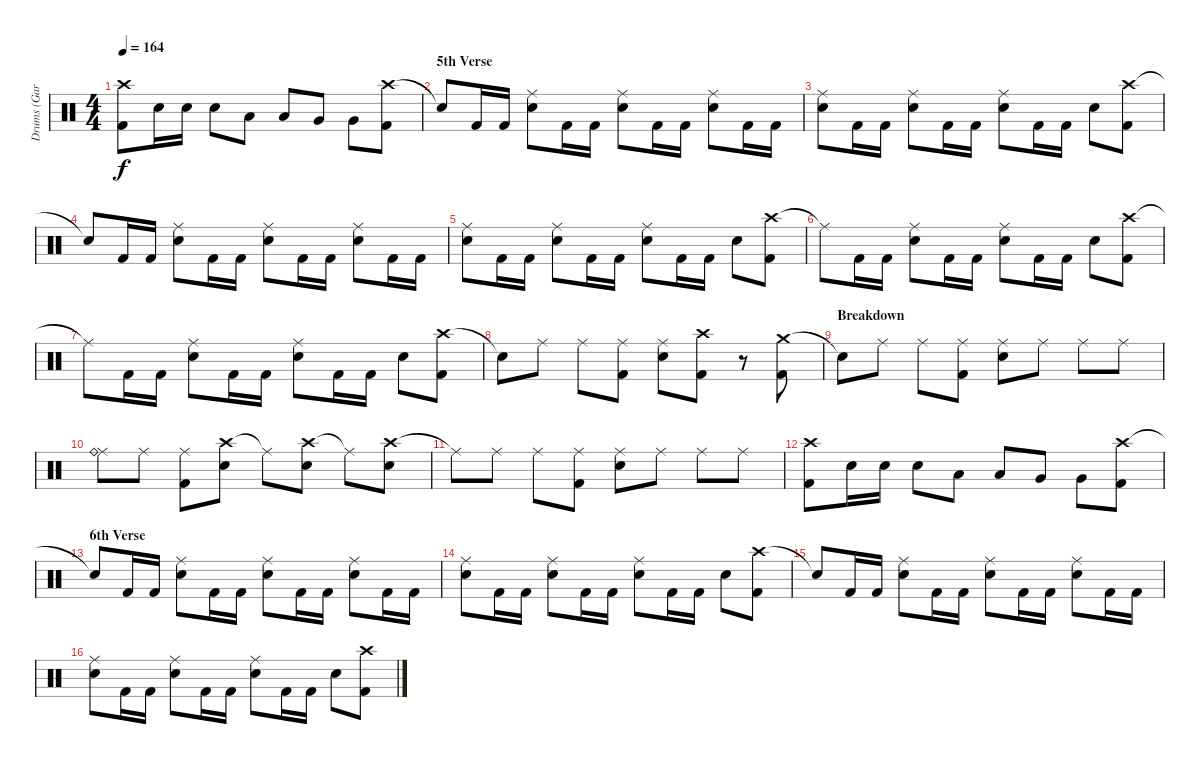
\track ("Drums (Gar Samuelson)" "Drums (Gar") {instrument percussion}
\staff {score}
\articulation defaults
\ts (4 4)
\tempo 164
\clef neutral
\ks c
("Crash high (hit)" "Kick (hit) 2").8{dy f} "Snare (hit) 2".16 "Snare (hit) 2".16 "Snare (hit) 2".8 "Low Tom (hit)".8 "Low Tom (hit)".8 "Very Low Tom (hit)".8 "Very Low Tom (hit)".8 ("Crash high (hit)" "Kick (hit) 2").8 |
\section ("" "5th Verse")
"Snare (hit)"{t}.8 "Kick (hit) 2".16 "Kick (hit) 2".16 ("Ride (middle)" "Snare (hit) 2").8 "Kick (hit) 2".16 "Kick (hit) 2".16 ("Ride (middle)" "Snare (hit) 2").8 "Kick (hit) 2".16 "Kick (hit) 2".16 ("Ride (middle)" "Snare (hit) 2").8 "Kick (hit) 2".16 "Kick (hit) 2".16 |
("Ride (middle)" "Snare (hit) 2").8 "Kick (hit) 2".16 "Kick (hit) 2".16 ("Ride (middle)" "Snare (hit) 2").8 "Kick (hit) 2".16 "Kick (hit) 2".16 ("Ride (middle)" "Snare (hit) 2").8 "Kick (hit) 2".16 "Kick (hit) 2".16 "Snare (hit) 2".8 ("Crash high (hit)" "Kick (hit) 2").8 |
"Snare (hit)"{t}.8 "Kick (hit) 2".16 "Kick (hit) 2".16 ("Ride (middle)" "Snare (hit) 2").8 "Kick (hit) 2".16 "Kick (hit) 2".16 ("Ride (middle)" "Snare (hit) 2").8 "Kick (hit) 2".16 "Kick (hit) 2".16 ("Ride (middle)" "Snare (hit) 2").8 "Kick (hit) 2".16 "Kick (hit) 2".16 |
("Ride (middle)" "Snare (hit) 2").8 "Kick (hit) 2".16 "Kick (hit) 2".16 ("Ride (middle)" "Snare (hit) 2").8 "Kick (hit) 2".16 "Kick (hit) 2".16 ("Ride (middle)" "Snare (hit) 2").8 "Kick (hit) 2".16 "Kick (hit) 2".16 "Snare (hit) 2".8 ("Crash high (hit)" "Kick (hit) 2").8 |
"Ride (middle)"{t}.8 "Kick (hit) 2".16 "Kick (hit) 2".16 ("Ride (middle)" "Snare (hit) 2").8 "Kick (hit) 2".16 "Kick (hit) 2".16 ("Ride (middle)" "Snare (hit) 2").8 "Kick (hit) 2".16 "Kick (hit) 2".16 "Snare (hit) 2".8 ("Crash high (hit)" "Kick (hit) 2").8 |
"Ride (middle)"{t}.8 "Kick (hit) 2".16 "Kick (hit) 2".16 ("Ride (middle)" "Snare (hit) 2").8 "Kick (hit) 2".16 "Kick (hit) 2".16 ("Ride (middle)" "Snare (hit) 2").8 "Kick (hit) 2".16 "Kick (hit) 2".16 "Snare (hit) 2".8 ("Crash high (hit)" "Kick (hit) 2").8 |
"Snare (hit)"{t}.8 "Ride (middle)".8 "Ride (middle)".8 ("Ride (middle)" "Kick (hit) 2").8 ("Ride (middle)" "Snare (hit) 2").8 ("Crash high (hit)" "Kick (hit) 2").8 r.8 ("Crash medium (hit)" "Kick (hit) 2").8 |
\section ("" "Breakdown")
"Snare (hit)"{t}.8 "Ride (middle)".8 "Ride (middle)".8 ("Ride (middle)" "Kick (hit) 2").8 ("Ride (middle)" "Snare (hit) 2").8 "Ride (middle)".8 "Ride (middle)".8 "Ride (middle)".8 |
("Ride (middle)" "Ride (bell)").8 "Ride (middle)".8 ("Ride (middle)" "Kick (hit) 2").8 ("Crash high (hit)" "Snare (hit) 2").8 "Ride (middle)"{t}.8 ("Crash high (hit)" "Snare (hit) 2").8 "Ride (middle)"{t}.8 ("Crash high (hit)" "Snare (hit) 2").8 |
"Ride (middle)"{t}.8 "Ride (middle)".8 "Ride (middle)".8 ("Ride (middle)" "Kick (hit) 2").8 ("Ride (middle)" "Snare (hit) 2").8 "Ride (middle)".8 "Ride (middle)".8 "Ride (middle)".8 |
("Crash high (hit)" "Kick (hit) 2").8 "Snare (hit) 2".16 "Snare (hit) 2".16 "Snare (hit) 2".8 "Low Tom (hit)".8 "Low Tom (hit)".8 "Very Low Tom (hit)".8 "Very Low Tom (hit)".8 ("Crash high (hit)" "Kick (hit) 2").8 |
\section ("" "6th Verse")
"Snare (hit)"{t}.8 "Kick (hit) 2".16 "Kick (hit) 2".16 ("Ride (middle)" "Snare (hit) 2").8 "Kick (hit) 2".16 "Kick (hit) 2".16 ("Ride (middle)" "Snare (hit) 2").8 "Kick (hit) 2".16 "Kick (hit) 2".16 ("Ride (middle)" "Snare (hit) 2").8 "Kick (hit) 2".16 "Kick (hit) 2".16 |
("Ride (middle)" "Snare (hit) 2").8 "Kick (hit) 2".16 "Kick (hit) 2".16 ("Ride (middle)" "Snare (hit) 2").8 "Kick (hit) 2".16 "Kick (hit) 2".16 ("Ride (middle)" "Snare (hit) 2").8 "Kick (hit) 2".16 "Kick (hit) 2".16 "Snare (hit) 2".8 ("Crash high (hit)" "Kick (hit) 2").8 |
"Snare (hit)"{t}.8 "Kick (hit) 2".16 "Kick (hit) 2".16 ("Ride (middle)" "Snare (hit) 2").8 "Kick (hit) 2".16 "Kick (hit) 2".16 ("Ride (middle)" "Snare (hit) 2").8 "Kick (hit) 2".16 "Kick (hit) 2".16 ("Ride (middle)" "Snare (hit) 2").8 "Kick (hit) 2".16 "Kick (hit) 2".16 |
("Ride (middle)" "Snare (hit) 2").8 "Kick (hit) 2".16 "Kick (hit) 2".16 ("Ride (middle)" "Snare (hit) 2").8 "Kick (hit) 2".16 "Kick (hit) 2".16 ("Ride (middle)" "Snare (hit) 2").8 "Kick (hit) 2".16 "Kick (hit) 2".16 "Snare (hit) 2".8 ("Crash high (hit)" "Kick (hit) 2").8
